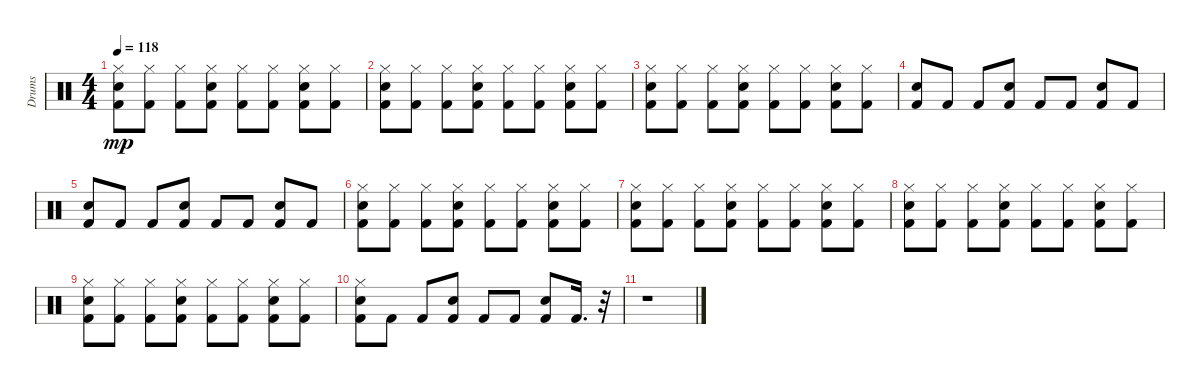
\track ("Drums" "Drums") {instrument percussion}
\staff {score}
\articulation defaults
\ts (4 4)
\tempo 118
\clef neutral
\ks c
("Hi-Hat (closed)" "Snare (hit) 2" "Kick (hit) 2").8{dy mp} ("Hi-Hat (closed)" "Kick (hit) 2").8 ("Hi-Hat (closed)" "Kick (hit) 2").8 ("Hi-Hat (closed)" "Snare (hit) 2" "Kick (hit) 2").8 ("Hi-Hat (closed)" "Kick (hit) 2").8 ("Hi-Hat (closed)" "Kick (hit) 2").8 ("Hi-Hat (closed)" "Snare (hit) 2" "Kick (hit) 2").8 ("Hi-Hat (closed)" "Kick (hit) 2").8 |
("Hi-Hat (closed)" "Kick (hit) 2" "Snare (hit) 2").8 ("Hi-Hat (closed)" "Kick (hit) 2").8 ("Hi-Hat (closed)" "Kick (hit) 2").8 ("Hi-Hat (closed)" "Kick (hit) 2" "Snare (hit) 2").8 ("Hi-Hat (closed)" "Kick (hit) 2").8 ("Hi-Hat (closed)" "Kick (hit) 2").8 ("Hi-Hat (closed)" "Snare (hit) 2" "Kick (hit) 2").8 ("Hi-Hat (closed)" "Kick (hit) 2").8 |
("Hi-Hat (closed)" "Snare (hit) 2" "Kick (hit) 2").8 ("Hi-Hat (closed)" "Kick (hit) 2").8 ("Hi-Hat (closed)" "Kick (hit) 2").8 ("Hi-Hat (closed)" "Kick (hit) 2" "Snare (hit) 2").8 ("Hi-Hat (closed)" "Kick (hit) 2").8 ("Hi-Hat (closed)" "Kick (hit) 2").8 ("Hi-Hat (closed)" "Snare (hit) 2" "Kick (hit) 2").8 ("Hi-Hat (closed)" "Kick (hit) 2").8 |
("Snare (hit) 2" "Kick (hit) 2").8 "Kick (hit) 2".8 "Kick (hit) 2".8 ("Kick (hit) 2" "Snare (hit) 2").8 "Kick (hit) 2".8 "Kick (hit) 2".8 ("Kick (hit) 2" "Snare (hit) 2").8 "Kick (hit) 2".8 |
("Snare (hit) 2" "Kick (hit) 2").8 "Kick (hit) 2".8 "Kick (hit) 2".8 ("Kick (hit) 2" "Snare (hit) 2").8 "Kick (hit) 2".8 "Kick (hit) 2".8 ("Kick (hit) 2" "Snare (hit) 2").8 "Kick (hit) 2".8 |
("Hi-Hat (closed)" "Snare (hit) 2" "Kick (hit) 2").8 ("Hi-Hat (closed)" "Kick (hit) 2").8 ("Hi-Hat (closed)" "Kick (hit) 2").8 ("Hi-Hat (closed)" "Kick (hit) 2" "Snare (hit) 2").8 ("Hi-Hat (closed)" "Kick (hit) 2").8 ("Hi-Hat (closed)" "Kick (hit) 2").8 ("Hi-Hat (closed)" "Kick (hit) 2" "Snare (hit) 2").8 ("Hi-Hat (closed)" "Kick (hit) 2").8 |
("Hi-Hat (closed)" "Kick (hit) 2" "Snare (hit) 2").8 ("Hi-Hat (closed)" "Kick (hit) 2").8 ("Hi-Hat (closed)" "Kick (hit) 2").8 ("Hi-Hat (closed)" "Snare (hit) 2" "Kick (hit) 2").8 ("Hi-Hat (closed)" "Kick (hit) 2").8 ("Hi-Hat (closed)" "Kick (hit) 2").8 ("Hi-Hat (closed)" "Kick (hit) 2" "Snare (hit) 2").8 ("Hi-Hat (closed)" "Kick (hit) 2").8 |
("Hi-Hat (closed)" "Kick (hit) 2" "Snare (hit) 2").8 ("Hi-Hat (closed)" "Kick (hit) 2").8 ("Hi-Hat (closed)" "Kick (hit) 2").8 ("Hi-Hat (closed)" "Snare (hit) 2" "Kick (hit) 2").8 ("Hi-Hat (closed)" "Kick (hit) 2").8 ("Hi-Hat (closed)" "Kick (hit) 2").8 ("Hi-Hat (closed)" "Snare (hit) 2" "Kick (hit) 2").8 ("Hi-Hat (closed)" "Kick (hit) 2").8 |
("Hi-Hat (closed)" "Kick (hit) 2" "Snare (hit) 2").8 ("Hi-Hat (closed)" "Kick (hit) 2").8 ("Hi-Hat (closed)" "Kick (hit) 2").8 ("Hi-Hat (closed)" "Snare (hit) 2" "Kick (hit) 2").8 ("Hi-Hat (closed)" "Kick (hit) 2").8 ("Hi-Hat (closed)" "Kick (hit) 2").8 ("Hi-Hat (closed)" "Kick (hit) 2" "Snare (hit) 2").8 ("Hi-Hat (closed)" "Kick (hit) 2").8 |
("Hi-Hat (closed)" "Snare (hit) 2" "Kick (hit) 2").8 "Kick (hit) 2".8 "Kick (hit) 2".8 ("Snare (hit) 2" "Kick (hit) 2").8 "Kick (hit) 2".8 "Kick (hit) 2".8 ("Snare (hit) 2" "Kick (hit) 2").8 "Kick (hit) 2".16{d} r.32 |
r.1
